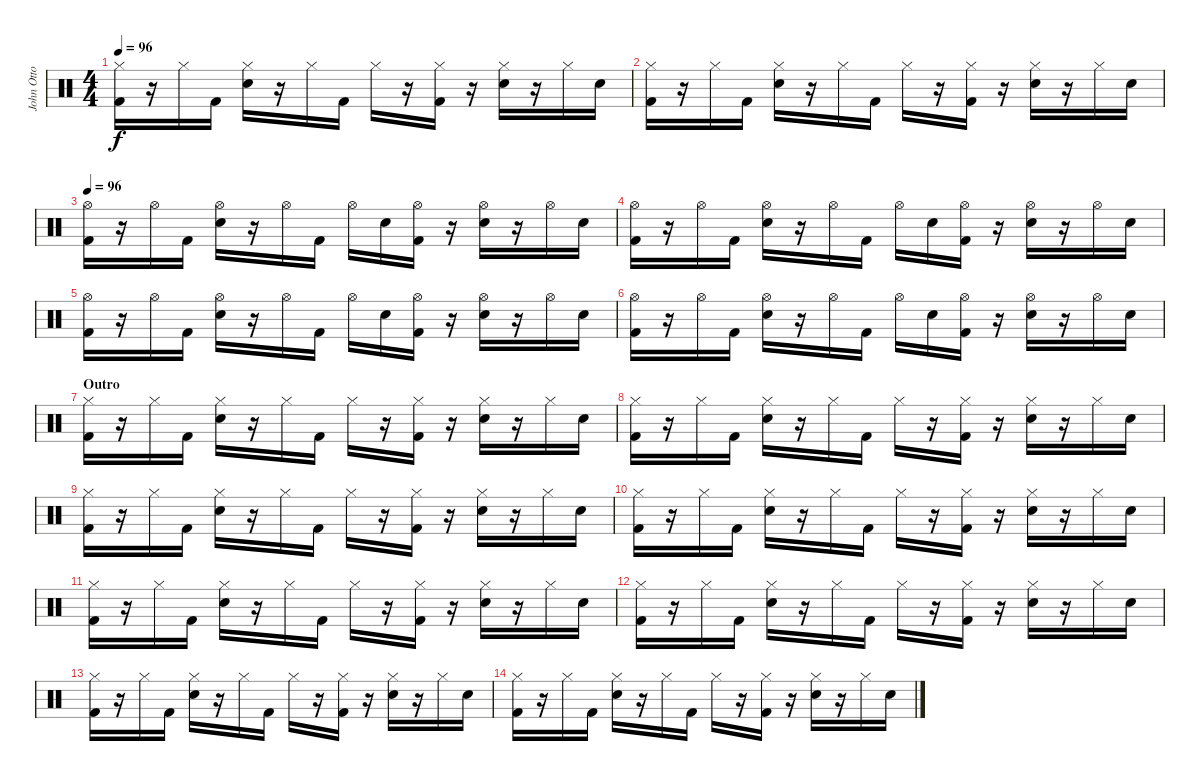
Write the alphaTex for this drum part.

\track ("John Otto" "John Otto") {instrument percussion}
\staff {score}
\articulation defaults
\ts (4 4)
\tempo 96
\clef neutral
\ks c
("Hi-Hat (closed)" "Kick (hit) 2").16{dy f} r.16 "Hi-Hat (closed)".16 "Kick (hit) 2".16 ("Hi-Hat (closed)" "Snare (hit) 2").16 r.16 "Hi-Hat (closed)".16 "Kick (hit) 2".16 "Hi-Hat (closed)".16 r.16 ("Hi-Hat (closed)" "Kick (hit) 2").16 r.16 ("Hi-Hat (closed)" "Snare (hit) 2").16 r.16 "Hi-Hat (closed)".16 "Snare (hit) 2".16 |
("Hi-Hat (closed)" "Kick (hit) 2").16 r.16 "Hi-Hat (closed)".16 "Kick (hit) 2".16 ("Hi-Hat (closed)" "Snare (hit) 2").16 r.16 "Hi-Hat (closed)".16 "Kick (hit) 2".16 "Hi-Hat (closed)".16 r.16 ("Hi-Hat (closed)" "Kick (hit) 2").16 r.16 ("Hi-Hat (closed)" "Snare (hit) 2").16 r.16 "Hi-Hat (closed)".16 "Snare (hit) 2".16 |
\tempo 96
("Hi-Hat (open)" "Kick (hit) 2").16 r.16 "Hi-Hat (open)".16 "Kick (hit) 2".16 ("Hi-Hat (open)" "Snare (hit) 2").16 r.16 "Hi-Hat (open)".16 "Kick (hit) 2".16 "Hi-Hat (open)".16 "Snare (hit) 2".16 ("Hi-Hat (open)" "Kick (hit) 2").16 r.16 ("Hi-Hat (open)" "Snare (hit) 2").16 r.16 "Hi-Hat (open)".16 "Snare (hit) 2".16 |
("Hi-Hat (open)" "Kick (hit) 2").16 r.16 "Hi-Hat (open)".16 "Kick (hit) 2".16 ("Hi-Hat (open)" "Snare (hit) 2").16 r.16 "Hi-Hat (open)".16 "Kick (hit) 2".16 "Hi-Hat (open)".16 "Snare (hit) 2".16 ("Hi-Hat (open)" "Kick (hit) 2").16 r.16 ("Hi-Hat (open)" "Snare (hit) 2").16 r.16 "Hi-Hat (open)".16 "Snare (hit) 2".16 |
("Hi-Hat (open)" "Kick (hit) 2").16 r.16 "Hi-Hat (open)".16 "Kick (hit) 2".16 ("Hi-Hat (open)" "Snare (hit) 2").16 r.16 "Hi-Hat (open)".16 "Kick (hit) 2".16 "Hi-Hat (open)".16 "Snare (hit) 2".16 ("Hi-Hat (open)" "Kick (hit) 2").16 r.16 ("Hi-Hat (open)" "Snare (hit) 2").16 r.16 "Hi-Hat (open)".16 "Snare (hit) 2".16 |
("Hi-Hat (open)" "Kick (hit) 2").16 r.16 "Hi-Hat (open)".16 "Kick (hit) 2".16 ("Hi-Hat (open)" "Snare (hit) 2").16 r.16 "Hi-Hat (open)".16 "Kick (hit) 2".16 "Hi-Hat (open)".16 "Snare (hit) 2".16 ("Hi-Hat (open)" "Kick (hit) 2").16 r.16 ("Hi-Hat (open)" "Snare (hit) 2").16 r.16 "Hi-Hat (open)".16 "Snare (hit) 2".16 |
\section ("" "Outro")
("Hi-Hat (closed)" "Kick (hit) 2").16 r.16 "Hi-Hat (closed)".16 "Kick (hit) 2".16 ("Hi-Hat (closed)" "Snare (hit) 2").16 r.16 "Hi-Hat (closed)".16 "Kick (hit) 2".16 "Hi-Hat (closed)".16 r.16 ("Hi-Hat (closed)" "Kick (hit) 2").16 r.16 ("Hi-Hat (closed)" "Snare (hit) 2").16 r.16 "Hi-Hat (closed)".16 "Snare (hit) 2".16 |
("Hi-Hat (closed)" "Kick (hit) 2").16 r.16 "Hi-Hat (closed)".16 "Kick (hit) 2".16 ("Hi-Hat (closed)" "Snare (hit) 2").16 r.16 "Hi-Hat (closed)".16 "Kick (hit) 2".16 "Hi-Hat (closed)".16 r.16 ("Hi-Hat (closed)" "Kick (hit) 2").16 r.16 ("Hi-Hat (closed)" "Snare (hit) 2").16 r.16 "Hi-Hat (closed)".16 "Snare (hit) 2".16 |
("Hi-Hat (closed)" "Kick (hit) 2").16 r.16 "Hi-Hat (closed)".16 "Kick (hit) 2".16 ("Hi-Hat (closed)" "Snare (hit) 2").16 r.16 "Hi-Hat (closed)".16 "Kick (hit) 2".16 "Hi-Hat (closed)".16 r.16 ("Hi-Hat (closed)" "Kick (hit) 2").16 r.16 ("Hi-Hat (closed)" "Snare (hit) 2").16 r.16 "Hi-Hat (closed)".16 "Snare (hit) 2".16 |
("Hi-Hat (closed)" "Kick (hit) 2").16 r.16 "Hi-Hat (closed)".16 "Kick (hit) 2".16 ("Hi-Hat (closed)" "Snare (hit) 2").16 r.16 "Hi-Hat (closed)".16 "Kick (hit) 2".16 "Hi-Hat (closed)".16 r.16 ("Hi-Hat (closed)" "Kick (hit) 2").16 r.16 ("Hi-Hat (closed)" "Snare (hit) 2").16 r.16 "Hi-Hat (closed)".16 "Snare (hit) 2".16 |
("Hi-Hat (closed)" "Kick (hit) 2").16 r.16 "Hi-Hat (closed)".16 "Kick (hit) 2".16 ("Hi-Hat (closed)" "Snare (hit) 2").16 r.16 "Hi-Hat (closed)".16 "Kick (hit) 2".16 "Hi-Hat (closed)".16 r.16 ("Hi-Hat (closed)" "Kick (hit) 2").16 r.16 ("Hi-Hat (closed)" "Snare (hit) 2").16 r.16 "Hi-Hat (closed)".16 "Snare (hit) 2".16 |
("Hi-Hat (closed)" "Kick (hit) 2").16 r.16 "Hi-Hat (closed)".16 "Kick (hit) 2".16 ("Hi-Hat (closed)" "Snare (hit) 2").16 r.16 "Hi-Hat (closed)".16 "Kick (hit) 2".16 "Hi-Hat (closed)".16 r.16 ("Hi-Hat (closed)" "Kick (hit) 2").16 r.16 ("Hi-Hat (closed)" "Snare (hit) 2").16 r.16 "Hi-Hat (closed)".16 "Snare (hit) 2".16 |
("Hi-Hat (closed)" "Kick (hit) 2").16 r.16 "Hi-Hat (closed)".16 "Kick (hit) 2".16 ("Hi-Hat (closed)" "Snare (hit) 2").16 r.16 "Hi-Hat (closed)".16 "Kick (hit) 2".16 "Hi-Hat (closed)".16 r.16 ("Hi-Hat (closed)" "Kick (hit) 2").16 r.16 ("Hi-Hat (closed)" "Snare (hit) 2").16 r.16 "Hi-Hat (closed)".16 "Snare (hit) 2".16 |
("Hi-Hat (closed)" "Kick (hit) 2").16 r.16 "Hi-Hat (closed)".16 "Kick (hit) 2".16 ("Hi-Hat (closed)" "Snare (hit) 2").16 r.16 "Hi-Hat (closed)".16 "Kick (hit) 2".16 "Hi-Hat (closed)".16 r.16 ("Hi-Hat (closed)" "Kick (hit) 2").16 r.16 ("Hi-Hat (closed)" "Snare (hit) 2").16 r.16 "Hi-Hat (closed)".16 "Snare (hit) 2".16
